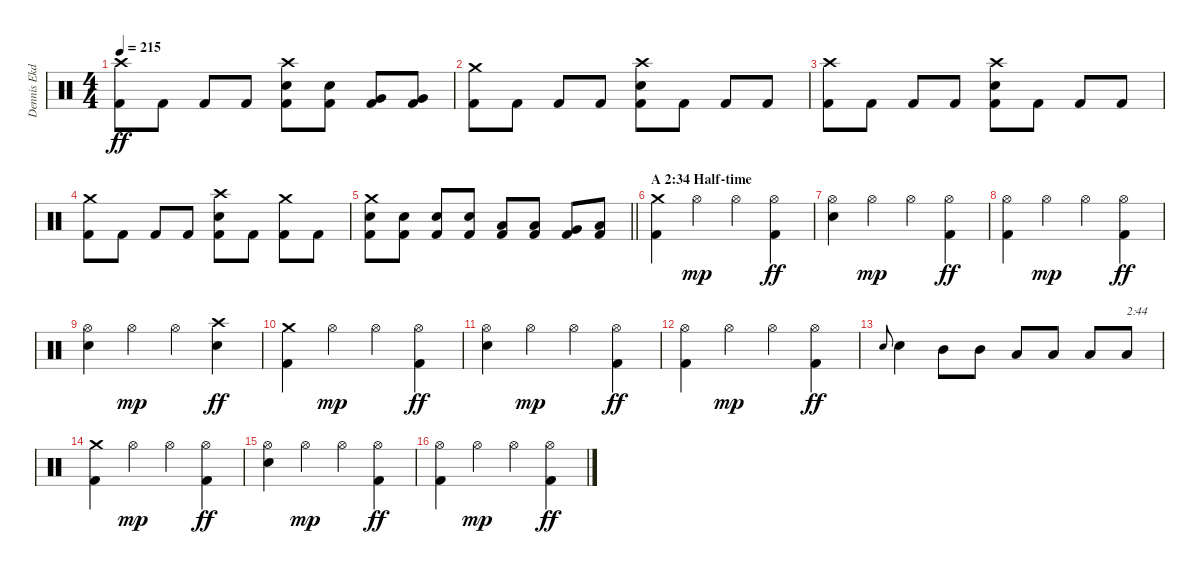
\track ("Dennis Ekdahl      (Drums)" "Dennis Ekd") {instrument percussion}
\staff {score}
\articulation defaults
\ts (4 4)
\tempo 215
\clef neutral
\ks c
("Crash high (hit)" "Kick (hit) 2").8{dy ff} "Kick (hit) 2".8 "Kick (hit) 2".8 "Kick (hit) 2".8 ("Crash high (hit)" "Electric Snare (hit)" "Kick (hit) 2").8 ("Electric Snare (hit)" "Kick (hit) 2").8 ("Very Low Tom (hit)" "Kick (hit) 2").8 ("Very Low Tom (hit)" "Kick (hit) 2").8 |
("Crash medium (hit)" "Kick (hit) 2").8 "Kick (hit) 2".8 "Kick (hit) 2".8 "Kick (hit) 2".8 ("Crash high (hit)" "Electric Snare (hit)" "Kick (hit) 2").8 "Kick (hit) 2".8 "Kick (hit) 2".8 "Kick (hit) 2".8 |
("Crash high (hit)" "Kick (hit) 2").8 "Kick (hit) 2".8 "Kick (hit) 2".8 "Kick (hit) 2".8 ("Crash high (hit)" "Electric Snare (hit)" "Kick (hit) 2").8 "Kick (hit) 2".8 "Kick (hit) 2".8 "Kick (hit) 2".8 |
("Crash medium (hit)" "Kick (hit) 2").8 "Kick (hit) 2".8 "Kick (hit) 2".8 "Kick (hit) 2".8 ("Crash high (hit)" "Electric Snare (hit)" "Kick (hit) 2").8 "Kick (hit) 2".8 ("Crash medium (hit)" "Kick (hit) 2").8 "Kick (hit) 2".8 |
\barLineRight lightlight
("Crash medium (hit)" "Electric Snare (hit)" "Kick (hit) 2").8 ("Electric Snare (hit)" "Kick (hit) 2").8 ("Electric Snare (hit)" "Kick (hit) 2").8 ("Electric Snare (hit)" "Kick (hit) 2").8 ("Low Tom (hit)" "Kick (hit) 2").8 ("Low Tom (hit)" "Kick (hit) 2").8 ("Very Low Tom (hit)" "Kick (hit) 2").8 ("Low Floor Tom (hit)" "Kick (hit) 2").8 |
\section ("" "A 2:34 Half-time")
("Crash medium (hit)" "Kick (hit) 2").4 "Hi-Hat (open)".4{dy mp} "Hi-Hat (open)".4 ("Hi-Hat (open)" "Kick (hit) 2").4{dy ff} |
("Hi-Hat (open)" "Electric Snare (hit)").4 "Hi-Hat (open)".4{dy mp} "Hi-Hat (open)".4 ("Hi-Hat (open)" "Kick (hit) 2").4{dy ff} |
("Hi-Hat (open)" "Kick (hit) 2").4 "Hi-Hat (open)".4{dy mp} "Hi-Hat (open)".4 ("Hi-Hat (open)" "Kick (hit) 2").4{dy ff} |
("Hi-Hat (open)" "Electric Snare (hit)").4 "Hi-Hat (open)".4{dy mp} "Hi-Hat (open)".4 ("Crash high (hit)" "Electric Snare (hit)").4{dy ff} |
("Crash medium (hit)" "Kick (hit) 2").4 "Hi-Hat (open)".4{dy mp} "Hi-Hat (open)".4 ("Hi-Hat (open)" "Kick (hit) 2").4{dy ff} |
("Hi-Hat (open)" "Electric Snare (hit)").4 "Hi-Hat (open)".4{dy mp} "Hi-Hat (open)".4 ("Hi-Hat (open)" "Kick (hit) 2").4{dy ff} |
("Hi-Hat (open)" "Kick (hit) 2").4 "Hi-Hat (open)".4{dy mp} "Hi-Hat (open)".4 ("Hi-Hat (open)" "Kick (hit) 2").4{dy ff} |
"Electric Snare (hit)".8{gr onbeat} "Electric Snare (hit)".4 "Mid Tom (hit)".8 "Mid Tom (hit)".8 "Low Tom (hit)".8 "Low Tom (hit)".8 "Low Tom (hit)".8 "Low Tom (hit)".8{txt "2:44"} |
("Crash medium (hit)" "Kick (hit) 2").4 "Hi-Hat (open)".4{dy mp} "Hi-Hat (open)".4 ("Hi-Hat (open)" "Kick (hit) 2").4{dy ff} |
("Hi-Hat (open)" "Electric Snare (hit)").4 "Hi-Hat (open)".4{dy mp} "Hi-Hat (open)".4 ("Hi-Hat (open)" "Kick (hit) 2").4{dy ff} |
("Hi-Hat (open)" "Kick (hit) 2").4 "Hi-Hat (open)".4{dy mp} "Hi-Hat (open)".4 ("Hi-Hat (open)" "Kick (hit) 2").4{dy ff}
